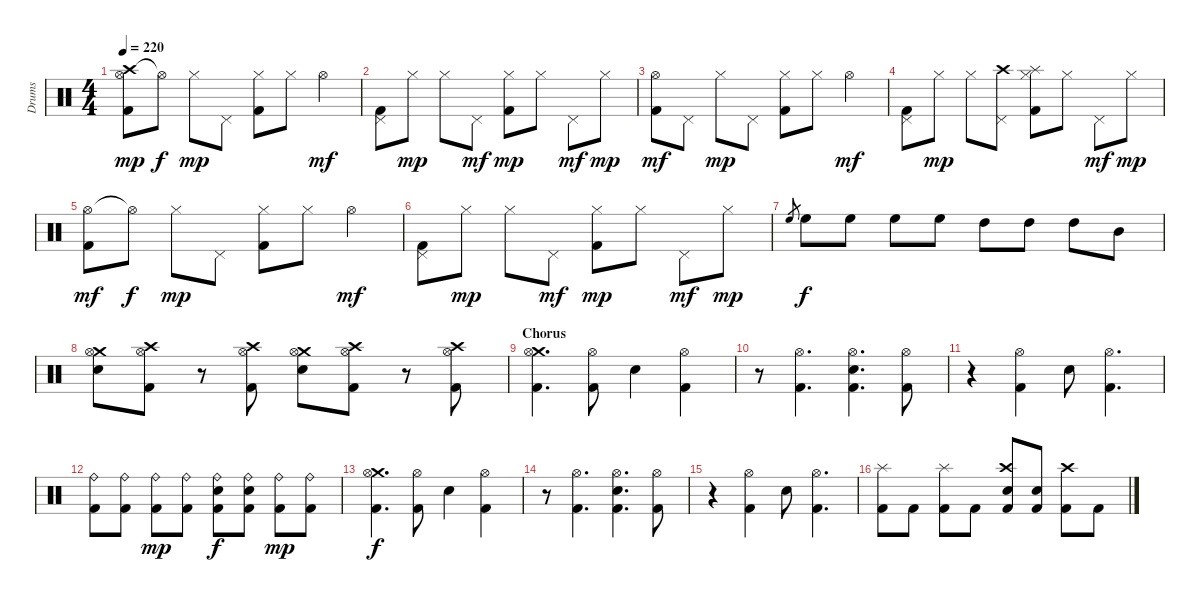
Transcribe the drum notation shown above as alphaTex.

\bracketExtendMode groupsimilarinstruments
\otherSystemsTrackNameOrientation horizontal
\track ("Drumkit" "Drums") {instrument percussion}
\staff {score}
\articulation defaults
\ts (4 4)
\tempo 220
\clef neutral
\ks c
("Crash high (hit)" "Hi-Hat (open)" "Kick (hit) 2").8{dy mp beam Down} "Hi-Hat (open)"{t}.8{dy f beam Down} "Hi-Hat (closed)".8{dy mp beam Down} "Pedal Hi-Hat (hit)".8{beam Down} ("Hi-Hat (closed)" "Kick (hit) 2").8{beam Down} "Hi-Hat (closed)".8{beam Down} "Hi-Hat (open)".4{dy mf beam Down} |
("Pedal Hi-Hat (hit)" "Kick (hit) 2").8{beam Down} "Hi-Hat (closed)".8{dy mp beam Down} "Hi-Hat (closed)".8{beam Down} "Pedal Hi-Hat (hit)".8{dy mf beam Down} ("Hi-Hat (closed)" "Kick (hit) 2").8{dy mp beam Down} "Hi-Hat (closed)".8{beam Down} "Pedal Hi-Hat (hit)".8{dy mf beam Down} "Hi-Hat (closed)".8{dy mp beam Down} |
("Hi-Hat (open)" "Kick (hit) 2").8{dy mf beam Down} "Pedal Hi-Hat (hit)".8{beam Down} "Hi-Hat (closed)".8{dy mp beam Down} "Pedal Hi-Hat (hit)".8{beam Down} ("Hi-Hat (closed)" "Kick (hit) 2").8{beam Down} "Hi-Hat (closed)".8{beam Down} "Hi-Hat (open)".4{dy mf beam Down} |
("Pedal Hi-Hat (hit)" "Kick (hit) 2").8{beam Down} "Hi-Hat (closed)".8{dy mp beam Down} "Hi-Hat (closed)".8{beam Down} ("Crash high (hit)" "Pedal Hi-Hat (hit)").8{beam Down} ("Splash (hit)" "Hi-Hat (closed)" "Kick (hit) 2").8{beam Down} "Hi-Hat (closed)".8{beam Down} "Pedal Hi-Hat (hit)".8{dy mf beam Down} "Hi-Hat (closed)".8{dy mp beam Down} |
("Hi-Hat (open)" "Kick (hit) 2").8{dy mf beam Down} "Hi-Hat (open)"{t}.8{dy f beam Down} "Hi-Hat (closed)".8{dy mp beam Down} "Pedal Hi-Hat (hit)".8{beam Down} ("Hi-Hat (closed)" "Kick (hit) 2").8{beam Down} "Hi-Hat (closed)".8{beam Down} "Hi-Hat (open)".4{dy mf beam Down} |
("Pedal Hi-Hat (hit)" "Kick (hit) 2").8{beam Down} "Hi-Hat (closed)".8{dy mp beam Down} "Hi-Hat (closed)".8{beam Down} "Pedal Hi-Hat (hit)".8{dy mf beam Down} ("Hi-Hat (closed)" "Kick (hit) 2").8{dy mp beam Down} "Hi-Hat (closed)".8{beam Down} "Pedal Hi-Hat (hit)".8{dy mf beam Down} "Hi-Hat (closed)".8{dy mp beam Down} |
"High Floor Tom (hit)".8{gr beam Up} "High Floor Tom (hit)".8{dy f beam Down} "High Floor Tom (hit)".8{beam Down} "High Floor Tom (hit)".8{beam Down} "High Floor Tom (hit)".8{beam Down} "High Tom (hit)".8{beam Down} "High Tom (hit)".8{beam Down} "High Tom (hit)".8{beam Down} "Mid Tom (hit)".8{beam Down} |
("Crash medium (hit)" "Hi-Hat (open)" "Snare (hit) 2").8{beam Down} ("Crash high (hit)" "Hi-Hat (open)" "Kick (hit) 2").8{beam Down} r.8{beam Down} ("Crash high (hit)" "Hi-Hat (open)" "Kick (hit) 2").8{beam Down} ("Crash medium (hit)" "Hi-Hat (open)" "Snare (hit) 2").8{beam Down} ("Crash high (hit)" "Hi-Hat (open)" "Kick (hit) 2").8{beam Down} r.8{beam Down} ("Crash high (hit)" "Hi-Hat (open)" "Kick (hit) 2").8{beam Down} |
\section ("" "Chorus")
("Crash medium (hit)" "Hi-Hat (open)" "Kick (hit) 2").4{d beam Down} ("Hi-Hat (open)" "Kick (hit) 2").8{beam Down} "Snare (hit) 2".4{beam Down} ("Hi-Hat (open)" "Kick (hit) 2").4{beam Down} |
r.8{beam Down} ("Hi-Hat (open)" "Kick (hit) 2").4{d beam Down} ("Hi-Hat (open)" "Snare (hit) 2" "Kick (hit) 2").4{d beam Down} ("Hi-Hat (open)" "Kick (hit) 2").8{beam Down} |
r.4{beam Down} ("Hi-Hat (open)" "Kick (hit) 2").4{beam Down} "Snare (hit) 2".8{beam Down} ("Hi-Hat (open)" "Kick (hit) 2").4{d beam Down} |
("Ride (bell)" "Kick (hit) 2").8{beam Down} ("Ride (bell)" "Kick (hit) 2").8{beam Down} ("Ride (bell)" "Kick (hit) 2").8{dy mp beam Down} ("Ride (bell)" "Kick (hit) 2").8{beam Down} ("Ride (bell)" "Snare (hit) 2" "Kick (hit) 2").8{dy f beam Down} ("Ride (bell)" "Snare (hit) 2" "Kick (hit) 2").8{beam Down} ("Ride (bell)" "Kick (hit) 2").8{dy mp beam Down} ("Ride (bell)" "Kick (hit) 2").8{beam Down} |
("Crash medium (hit)" "Hi-Hat (open)" "Kick (hit) 2").4{d dy f beam Down} ("Hi-Hat (open)" "Kick (hit) 2").8{beam Down} "Snare (hit) 2".4{beam Down} ("Hi-Hat (open)" "Kick (hit) 2").4{beam Down} |
r.8{beam Down} ("Hi-Hat (open)" "Kick (hit) 2").4{d beam Down} ("Hi-Hat (open)" "Snare (hit) 2" "Kick (hit) 2").4{d beam Down} ("Hi-Hat (open)" "Kick (hit) 2").8{beam Down} |
r.4{beam Down} ("Hi-Hat (open)" "Kick (hit) 2").4{beam Down} "Snare (hit) 2".8{beam Down} ("Hi-Hat (open)" "Kick (hit) 2").4{d beam Down} |
("Splash (hit)" "Kick (hit) 2").8{beam Down} "Kick (hit) 2".8{beam Down} ("Splash (hit)" "Kick (hit) 2").8{beam Down} "Kick (hit) 2".8{beam Down} ("Crash high (hit)" "Snare (hit) 2" "Kick (hit) 2").8{beam Up} ("Snare (hit) 2" "Kick (hit) 2").8{beam Up} ("Crash high (hit)" "Kick (hit) 2").8{beam Down} "Kick (hit) 2".8{beam Down}
